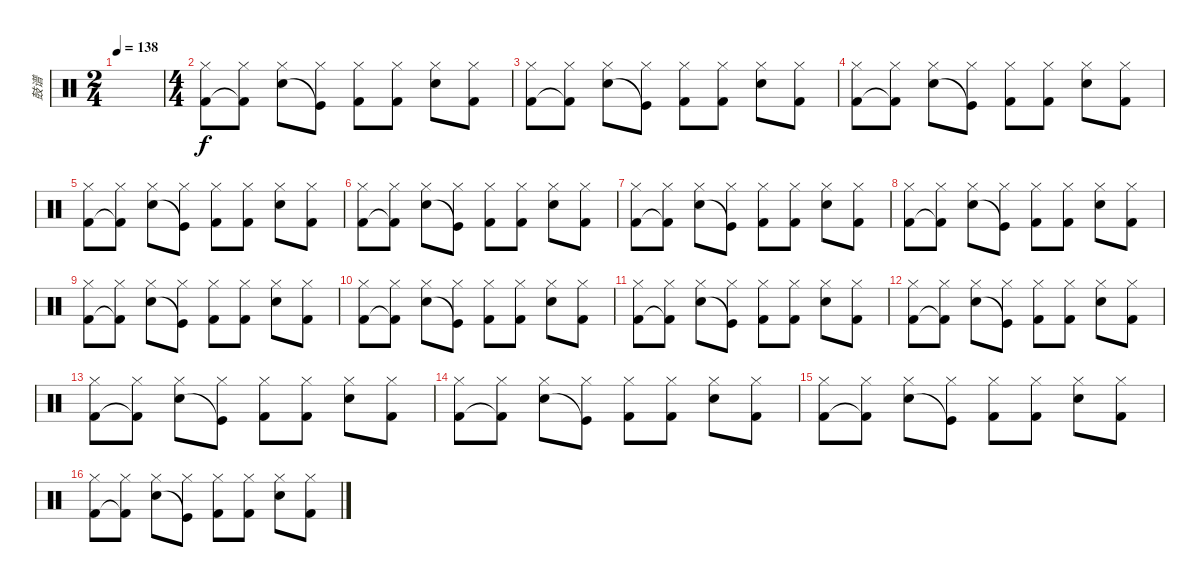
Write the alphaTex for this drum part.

\track ("鼓谱" "鼓谱") {instrument percussion}
\staff {score}
\articulation defaults
\ts (2 4)
\tempo 138
\clef neutral
\ks c
|
\ts (4 4)
("Kick (hit) 2" "Hi-Hat (closed)").8 ("Kick (hit) 2"{t} "Hi-Hat (closed)").8 ("Snare (hit) 2" "Hi-Hat (closed)").8 ("Kick (hit)"{t} "Hi-Hat (closed)").8 ("Kick (hit) 2" "Hi-Hat (closed)").8 ("Kick (hit) 2" "Hi-Hat (closed)").8 ("Snare (hit) 2" "Hi-Hat (closed)").8 ("Kick (hit) 2" "Hi-Hat (closed)").8 |
("Kick (hit) 2" "Hi-Hat (closed)").8 ("Kick (hit) 2"{t} "Hi-Hat (closed)").8 ("Snare (hit) 2" "Hi-Hat (closed)").8 ("Kick (hit)"{t} "Hi-Hat (closed)").8 ("Kick (hit) 2" "Hi-Hat (closed)").8 ("Kick (hit) 2" "Hi-Hat (closed)").8 ("Snare (hit) 2" "Hi-Hat (closed)").8 ("Kick (hit) 2" "Hi-Hat (closed)").8 |
("Kick (hit) 2" "Hi-Hat (closed)").8 ("Kick (hit) 2"{t} "Hi-Hat (closed)").8 ("Snare (hit) 2" "Hi-Hat (closed)").8 ("Kick (hit)"{t} "Hi-Hat (closed)").8 ("Kick (hit) 2" "Hi-Hat (closed)").8 ("Kick (hit) 2" "Hi-Hat (closed)").8 ("Snare (hit) 2" "Hi-Hat (closed)").8 ("Kick (hit) 2" "Hi-Hat (closed)").8 |
("Kick (hit) 2" "Hi-Hat (closed)").8 ("Kick (hit) 2"{t} "Hi-Hat (closed)").8 ("Snare (hit) 2" "Hi-Hat (closed)").8 ("Kick (hit)"{t} "Hi-Hat (closed)").8 ("Kick (hit) 2" "Hi-Hat (closed)").8 ("Kick (hit) 2" "Hi-Hat (closed)").8 ("Snare (hit) 2" "Hi-Hat (closed)").8 ("Kick (hit) 2" "Hi-Hat (closed)").8 |
("Kick (hit) 2" "Hi-Hat (closed)").8 ("Kick (hit) 2"{t} "Hi-Hat (closed)").8 ("Snare (hit) 2" "Hi-Hat (closed)").8 ("Kick (hit)"{t} "Hi-Hat (closed)").8 ("Kick (hit) 2" "Hi-Hat (closed)").8 ("Kick (hit) 2" "Hi-Hat (closed)").8 ("Snare (hit) 2" "Hi-Hat (closed)").8 ("Kick (hit) 2" "Hi-Hat (closed)").8 |
("Kick (hit) 2" "Hi-Hat (closed)").8 ("Kick (hit) 2"{t} "Hi-Hat (closed)").8 ("Snare (hit) 2" "Hi-Hat (closed)").8 ("Kick (hit)"{t} "Hi-Hat (closed)").8 ("Kick (hit) 2" "Hi-Hat (closed)").8 ("Kick (hit) 2" "Hi-Hat (closed)").8 ("Snare (hit) 2" "Hi-Hat (closed)").8 ("Kick (hit) 2" "Hi-Hat (closed)").8 |
("Kick (hit) 2" "Hi-Hat (closed)").8 ("Kick (hit) 2"{t} "Hi-Hat (closed)").8 ("Snare (hit) 2" "Hi-Hat (closed)").8 ("Kick (hit)"{t} "Hi-Hat (closed)").8 ("Kick (hit) 2" "Hi-Hat (closed)").8 ("Kick (hit) 2" "Hi-Hat (closed)").8 ("Snare (hit) 2" "Hi-Hat (closed)").8 ("Kick (hit) 2" "Hi-Hat (closed)").8 |
("Kick (hit) 2" "Hi-Hat (closed)").8 ("Kick (hit) 2"{t} "Hi-Hat (closed)").8 ("Snare (hit) 2" "Hi-Hat (closed)").8 ("Kick (hit)"{t} "Hi-Hat (closed)").8 ("Kick (hit) 2" "Hi-Hat (closed)").8 ("Kick (hit) 2" "Hi-Hat (closed)").8 ("Snare (hit) 2" "Hi-Hat (closed)").8 ("Kick (hit) 2" "Hi-Hat (closed)").8 |
("Kick (hit) 2" "Hi-Hat (closed)").8 ("Kick (hit) 2"{t} "Hi-Hat (closed)").8 ("Snare (hit) 2" "Hi-Hat (closed)").8 ("Kick (hit)"{t} "Hi-Hat (closed)").8 ("Kick (hit) 2" "Hi-Hat (closed)").8 ("Kick (hit) 2" "Hi-Hat (closed)").8 ("Snare (hit) 2" "Hi-Hat (closed)").8 ("Kick (hit) 2" "Hi-Hat (closed)").8 |
("Kick (hit) 2" "Hi-Hat (closed)").8 ("Kick (hit) 2"{t} "Hi-Hat (closed)").8 ("Snare (hit) 2" "Hi-Hat (closed)").8 ("Kick (hit)"{t} "Hi-Hat (closed)").8 ("Kick (hit) 2" "Hi-Hat (closed)").8 ("Kick (hit) 2" "Hi-Hat (closed)").8 ("Snare (hit) 2" "Hi-Hat (closed)").8 ("Kick (hit) 2" "Hi-Hat (closed)").8 |
("Kick (hit) 2" "Hi-Hat (closed)").8 ("Kick (hit) 2"{t} "Hi-Hat (closed)").8 ("Snare (hit) 2" "Hi-Hat (closed)").8 ("Kick (hit)"{t} "Hi-Hat (closed)").8 ("Kick (hit) 2" "Hi-Hat (closed)").8 ("Kick (hit) 2" "Hi-Hat (closed)").8 ("Snare (hit) 2" "Hi-Hat (closed)").8 ("Kick (hit) 2" "Hi-Hat (closed)").8 |
("Kick (hit) 2" "Hi-Hat (closed)").8 ("Kick (hit) 2"{t} "Hi-Hat (closed)").8 ("Snare (hit) 2" "Hi-Hat (closed)").8 ("Kick (hit)"{t} "Hi-Hat (closed)").8 ("Kick (hit) 2" "Hi-Hat (closed)").8 ("Kick (hit) 2" "Hi-Hat (closed)").8 ("Snare (hit) 2" "Hi-Hat (closed)").8 ("Kick (hit) 2" "Hi-Hat (closed)").8 |
("Kick (hit) 2" "Hi-Hat (closed)").8 ("Kick (hit) 2"{t} "Hi-Hat (closed)").8 ("Snare (hit) 2" "Hi-Hat (closed)").8 ("Kick (hit)"{t} "Hi-Hat (closed)").8 ("Kick (hit) 2" "Hi-Hat (closed)").8 ("Kick (hit) 2" "Hi-Hat (closed)").8 ("Snare (hit) 2" "Hi-Hat (closed)").8 ("Kick (hit) 2" "Hi-Hat (closed)").8 |
("Kick (hit) 2" "Hi-Hat (closed)").8 ("Kick (hit) 2"{t} "Hi-Hat (closed)").8 ("Snare (hit) 2" "Hi-Hat (closed)").8 ("Kick (hit)"{t} "Hi-Hat (closed)").8 ("Kick (hit) 2" "Hi-Hat (closed)").8 ("Kick (hit) 2" "Hi-Hat (closed)").8 ("Snare (hit) 2" "Hi-Hat (closed)").8 ("Kick (hit) 2" "Hi-Hat (closed)").8 |
("Kick (hit) 2" "Hi-Hat (closed)").8 ("Kick (hit) 2"{t} "Hi-Hat (closed)").8 ("Snare (hit) 2" "Hi-Hat (closed)").8 ("Kick (hit)"{t} "Hi-Hat (closed)").8 ("Kick (hit) 2" "Hi-Hat (closed)").8 ("Kick (hit) 2" "Hi-Hat (closed)").8 ("Snare (hit) 2" "Hi-Hat (closed)").8 ("Kick (hit) 2" "Hi-Hat (closed)").8
